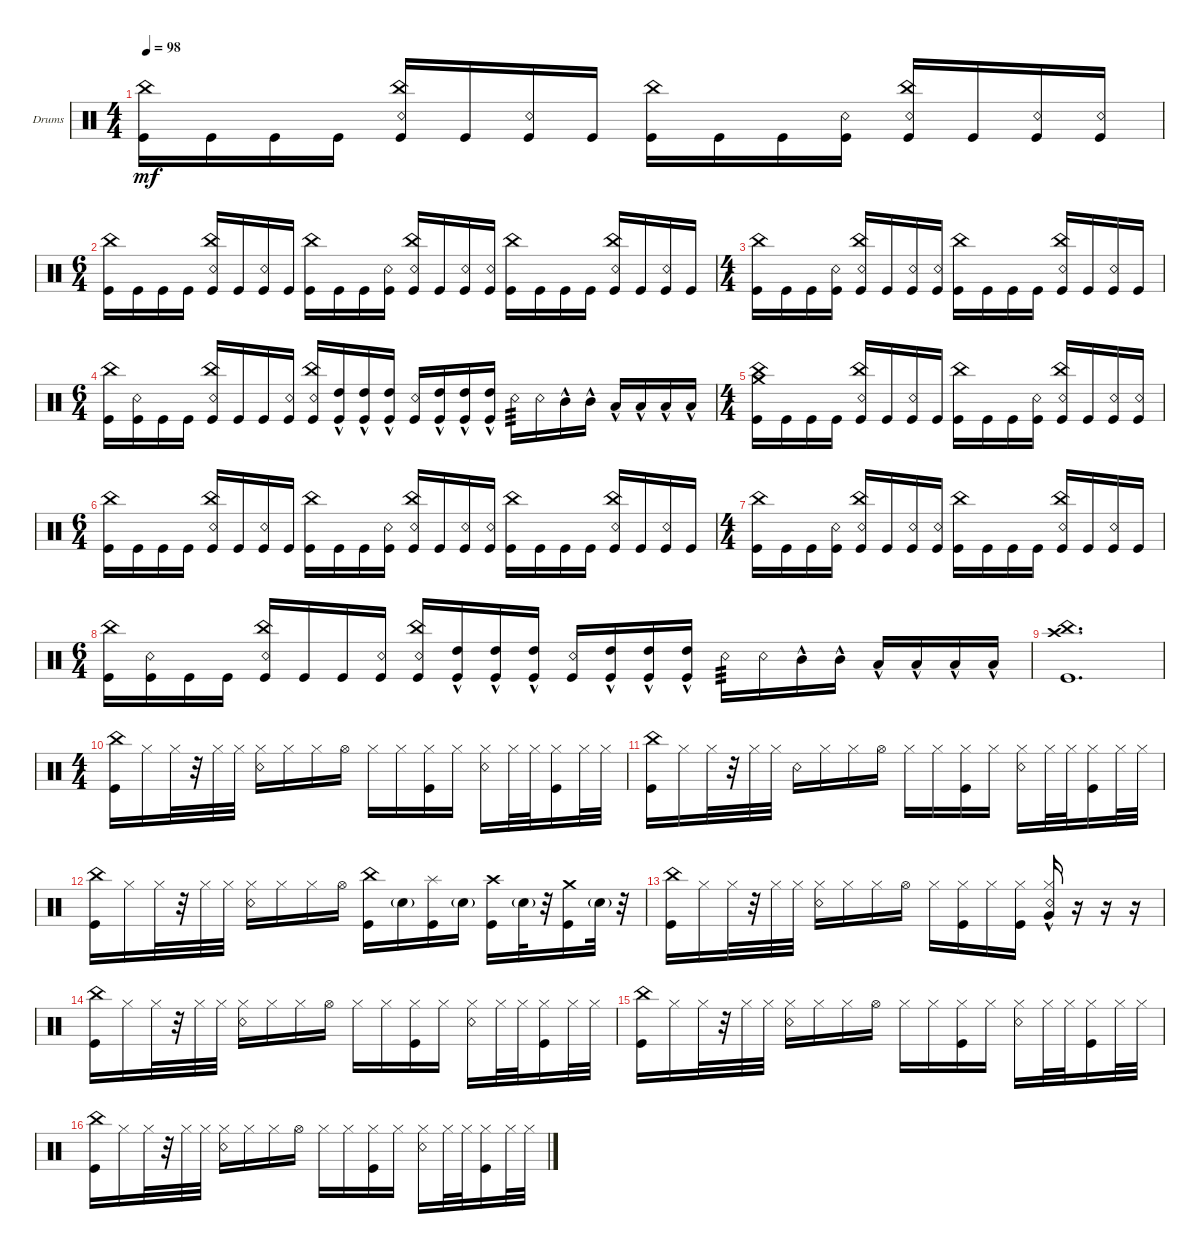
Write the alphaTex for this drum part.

\defaultSystemsLayout 4
\bracketExtendMode groupsimilarinstruments
\firstSystemTrackNameOrientation horizontal
\otherSystemsTrackNameOrientation horizontal
\track ("Drumkit" "Drums") {instrument percussion}
\staff {score}
\articulation defaults
\ts (4 4)
\tempo 98
\clef neutral
\scale
0.333333
\ks c
("Kick (hit)" "China (hit)").16{dy mf} "Kick (hit)".16 "Kick (hit)".16 "Kick (hit)".16 ("Kick (hit)" "Snare (rim shot)" "China (hit)").16 "Kick (hit)".16 ("Kick (hit)" "Snare (rim shot)").16 "Kick (hit)".16 ("Kick (hit)" "China (hit)").16 "Kick (hit)".16 "Kick (hit)".16 ("Kick (hit)" "Snare (rim shot)").16 ("Kick (hit)" "China (hit)" "Snare (rim shot)").16 "Kick (hit)".16 ("Kick (hit)" "Snare (rim shot)").16 ("Kick (hit)" "Snare (rim shot)").16 |
\ts (6 4)
\scale
0.333333 ("Kick (hit)" "China (hit)").16 "Kick (hit)".16 "Kick (hit)".16 "Kick (hit)".16 ("Kick (hit)" "Snare (rim shot)" "China (hit)").16 "Kick (hit)".16 ("Kick (hit)" "Snare (rim shot)").16 "Kick (hit)".16 ("Kick (hit)" "China (hit)").16 "Kick (hit)".16 "Kick (hit)".16 ("Kick (hit)" "Snare (rim shot)").16 ("Kick (hit)" "China (hit)" "Snare (rim shot)").16 "Kick (hit)".16 ("Kick (hit)" "Snare (rim shot)").16 ("Kick (hit)" "Snare (rim shot)").16 ("Kick (hit)" "China (hit)").16 "Kick (hit)".16 "Kick (hit)".16 "Kick (hit)".16 ("Kick (hit)" "Snare (rim shot)" "China (hit)").16 "Kick (hit)".16 ("Kick (hit)" "Snare (rim shot)").16 "Kick (hit)".16 |
\ts (4 4)
\scale
0.333333 ("Kick (hit)" "China (hit)").16 "Kick (hit)".16 "Kick (hit)".16 ("Kick (hit)" "Snare (rim shot)").16 ("Kick (hit)" "China (hit)" "Snare (rim shot)").16 "Kick (hit)".16 ("Kick (hit)" "Snare (rim shot)").16 ("Kick (hit)" "Snare (rim shot)").16 ("Kick (hit)" "China (hit)").16 "Kick (hit)".16 "Kick (hit)".16 "Kick (hit)".16 ("Kick (hit)" "Snare (rim shot)" "China (hit)").16 "Kick (hit)".16 ("Kick (hit)" "Snare (rim shot)").16 "Kick (hit)".16 |
\ts (6 4)
\scale
0.333333 ("Kick (hit)" "China (hit)").16 ("Kick (hit)" "Snare (rim shot)").16 "Kick (hit)".16 "Kick (hit)".16 ("Kick (hit)" "China (hit)" "Snare (rim shot)").16 "Kick (hit)".16 "Kick (hit)".16 ("Kick (hit)" "Snare (rim shot)").16 ("Kick (hit)" "China (hit)" "Snare (rim shot)").16 ("Kick (hit)" "High Tom (hit)"{hac}).16 ("Kick (hit)" "High Tom (hit)"{hac}).16 ("Kick (hit)" "High Tom (hit)"{hac}).16 ("Kick (hit)" "Snare (rim shot)").16 ("Kick (hit)" "High Tom (hit)"{hac}).16 ("Kick (hit)" "High Tom (hit)"{hac}).16 ("Kick (hit)" "High Tom (hit)"{hac}).16 "Snare (rim shot)".16{tp 3} "Snare (rim shot)".16 "Mid Tom (hit)"{hac}.16 "Mid Tom (hit)"{hac}.16 "Low Tom (hit)"{hac}.16 "Low Tom (hit)"{hac}.16 "Low Tom (hit)"{hac}.16 "Low Tom (hit)"{hac}.16 |
\ts (4 4)
("Kick (hit)" "China (hit)" "Crash medium (hit)").16 "Kick (hit)".16 "Kick (hit)".16 "Kick (hit)".16 ("Kick (hit)" "Snare (rim shot)" "China (hit)").16 "Kick (hit)".16 ("Kick (hit)" "Snare (rim shot)").16 "Kick (hit)".16 ("Kick (hit)" "China (hit)").16 "Kick (hit)".16 "Kick (hit)".16 ("Kick (hit)" "Snare (rim shot)").16 ("Kick (hit)" "China (hit)" "Snare (rim shot)").16 "Kick (hit)".16 ("Kick (hit)" "Snare (rim shot)").16 ("Kick (hit)" "Snare (rim shot)").16 |
\ts (6 4)
("Kick (hit)" "China (hit)").16 "Kick (hit)".16 "Kick (hit)".16 "Kick (hit)".16 ("Kick (hit)" "Snare (rim shot)" "China (hit)").16 "Kick (hit)".16 ("Kick (hit)" "Snare (rim shot)").16 "Kick (hit)".16 ("Kick (hit)" "China (hit)").16 "Kick (hit)".16 "Kick (hit)".16 ("Kick (hit)" "Snare (rim shot)").16 ("Kick (hit)" "China (hit)" "Snare (rim shot)").16 "Kick (hit)".16 ("Kick (hit)" "Snare (rim shot)").16 ("Kick (hit)" "Snare (rim shot)").16 ("Kick (hit)" "China (hit)").16 "Kick (hit)".16 "Kick (hit)".16 "Kick (hit)".16 ("Kick (hit)" "Snare (rim shot)" "China (hit)").16 "Kick (hit)".16 ("Kick (hit)" "Snare (rim shot)").16 "Kick (hit)".16 |
\ts (4 4)
("Kick (hit)" "China (hit)").16 "Kick (hit)".16 "Kick (hit)".16 ("Kick (hit)" "Snare (rim shot)").16 ("Kick (hit)" "China (hit)" "Snare (rim shot)").16 "Kick (hit)".16 ("Kick (hit)" "Snare (rim shot)").16 ("Kick (hit)" "Snare (rim shot)").16 ("Kick (hit)" "China (hit)").16 "Kick (hit)".16 "Kick (hit)".16 "Kick (hit)".16 ("Kick (hit)" "Snare (rim shot)" "China (hit)").16 "Kick (hit)".16 ("Kick (hit)" "Snare (rim shot)").16 "Kick (hit)".16 |
\ts (6 4)
("Kick (hit)" "China (hit)").16 ("Kick (hit)" "Snare (rim shot)").16 "Kick (hit)".16 "Kick (hit)".16 ("Kick (hit)" "China (hit)" "Snare (rim shot)").16 "Kick (hit)".16 "Kick (hit)".16 ("Kick (hit)" "Snare (rim shot)").16 ("Kick (hit)" "China (hit)" "Snare (rim shot)").16 ("Kick (hit)" "High Tom (hit)"{hac}).16 ("Kick (hit)" "High Tom (hit)"{hac}).16 ("Kick (hit)" "High Tom (hit)"{hac}).16 ("Kick (hit)" "Snare (rim shot)").16 ("Kick (hit)" "High Tom (hit)"{hac}).16 ("Kick (hit)" "High Tom (hit)"{hac}).16 ("Kick (hit)" "High Tom (hit)"{hac}).16 "Snare (rim shot)".16{tp 3} "Snare (rim shot)".16 "Mid Tom (hit)"{hac}.16 "Mid Tom (hit)"{hac}.16 "Low Tom (hit)"{hac}.16 "Low Tom (hit)"{hac}.16 "Low Tom (hit)"{hac}.16 "Low Tom (hit)"{hac}.16 |
("Kick (hit)" "China (hit)" "Crash high (hit)").1{d} |
\ts (4 4)
("Kick (hit)" "China (hit)").16 "Hi-Hat (closed)".16 "Hi-Hat (closed)".32 r.32 "Hi-Hat (closed)".32 "Hi-Hat (closed)".32 ("Hi-Hat (closed)" "Snare (rim shot)").16 "Hi-Hat (closed)".16 "Hi-Hat (closed)".16 "Hi-Hat (open)".16 "Hi-Hat (closed)".16 "Hi-Hat (closed)".16 ("Hi-Hat (closed)" "Kick (hit)").16 "Hi-Hat (closed)".16 ("Hi-Hat (closed)" "Snare (rim shot)").16 "Hi-Hat (closed)".32 "Hi-Hat (closed)".32 ("Hi-Hat (closed)" "Kick (hit)").16 "Hi-Hat (closed)".32 "Hi-Hat (closed)".32 |
("Kick (hit)" "China (hit)").16 "Hi-Hat (closed)".16 "Hi-Hat (closed)".32 r.32 "Hi-Hat (closed)".32 "Hi-Hat (closed)".32 "Snare (rim shot)".16 "Hi-Hat (closed)".16 "Hi-Hat (closed)".16 "Hi-Hat (open)".16 "Hi-Hat (closed)".16 "Hi-Hat (closed)".16 ("Hi-Hat (closed)" "Kick (hit)").16 "Hi-Hat (closed)".16 ("Hi-Hat (closed)" "Snare (rim shot)").16 "Hi-Hat (closed)".32 "Hi-Hat (closed)".32 ("Hi-Hat (closed)" "Kick (hit)").16 "Hi-Hat (closed)".32 "Hi-Hat (closed)".32 |
("Kick (hit)" "China (hit)").16 "Hi-Hat (closed)".16 "Hi-Hat (closed)".32 r.32 "Hi-Hat (closed)".32 "Hi-Hat (closed)".32 ("Hi-Hat (closed)" "Snare (rim shot)").16 "Hi-Hat (closed)".16 "Hi-Hat (closed)".16 "Hi-Hat (open)".16 ("China (hit)" "Kick (hit)").16 "Snare (hit) 2"{g}.16 ("Kick (hit)" "Splash (hit)").16 "Snare (hit) 2"{g}.16 ("Kick (hit)" "Crash high (hit)").16 "Snare (hit) 2"{g}.32 r.32 ("Kick (hit)" "Crash medium (hit)").16 "Snare (hit) 2"{g}.32 r.32 |
("Kick (hit)" "China (hit)").16 "Hi-Hat (closed)".16 "Hi-Hat (closed)".32 r.32 "Hi-Hat (closed)".32 "Hi-Hat (closed)".32 ("Hi-Hat (closed)" "Snare (rim shot)").16 "Hi-Hat (closed)".16 "Hi-Hat (closed)".16 "Hi-Hat (open)".16 "Hi-Hat (closed)".16 ("Hi-Hat (closed)" "Kick (hit)").16 "Hi-Hat (closed)".16 ("Hi-Hat (closed)" "Kick (hit)").16 ("Hi-Hat (closed)" "Snare (rim shot)" "Very Low Tom (hit)"{hac}).16 r.16 r.16 r.16 |
("Kick (hit)" "China (hit)").16 "Hi-Hat (closed)".16 "Hi-Hat (closed)".32 r.32 "Hi-Hat (closed)".32 "Hi-Hat (closed)".32 ("Hi-Hat (closed)" "Snare (rim shot)").16 "Hi-Hat (closed)".16 "Hi-Hat (closed)".16 "Hi-Hat (open)".16 "Hi-Hat (closed)".16 "Hi-Hat (closed)".16 ("Hi-Hat (closed)" "Kick (hit)").16 "Hi-Hat (closed)".16 ("Hi-Hat (closed)" "Snare (rim shot)").16 "Hi-Hat (closed)".32 "Hi-Hat (closed)".32 ("Hi-Hat (closed)" "Kick (hit)").16 "Hi-Hat (closed)".32 "Hi-Hat (closed)".32 |
("Kick (hit)" "China (hit)").16 "Hi-Hat (closed)".16 "Hi-Hat (closed)".32 r.32 "Hi-Hat (closed)".32 "Hi-Hat (closed)".32 ("Hi-Hat (closed)" "Snare (rim shot)").16 "Hi-Hat (closed)".16 "Hi-Hat (closed)".16 "Hi-Hat (open)".16 "Hi-Hat (closed)".16 "Hi-Hat (closed)".16 ("Hi-Hat (closed)" "Kick (hit)").16 "Hi-Hat (closed)".16 ("Hi-Hat (closed)" "Snare (rim shot)").16 "Hi-Hat (closed)".32 "Hi-Hat (closed)".32 ("Hi-Hat (closed)" "Kick (hit)").16 "Hi-Hat (closed)".32 "Hi-Hat (closed)".32 |
("Kick (hit)" "China (hit)").16 "Hi-Hat (closed)".16 "Hi-Hat (closed)".32 r.32 "Hi-Hat (closed)".32 "Hi-Hat (closed)".32 ("Hi-Hat (closed)" "Snare (rim shot)").16 "Hi-Hat (closed)".16 "Hi-Hat (closed)".16 "Hi-Hat (open)".16 "Hi-Hat (closed)".16 "Hi-Hat (closed)".16 ("Hi-Hat (closed)" "Kick (hit)").16 "Hi-Hat (closed)".16 ("Hi-Hat (closed)" "Snare (rim shot)").16 "Hi-Hat (closed)".32 "Hi-Hat (closed)".32 ("Hi-Hat (closed)" "Kick (hit)").16 "Hi-Hat (closed)".32 "Hi-Hat (closed)".32
